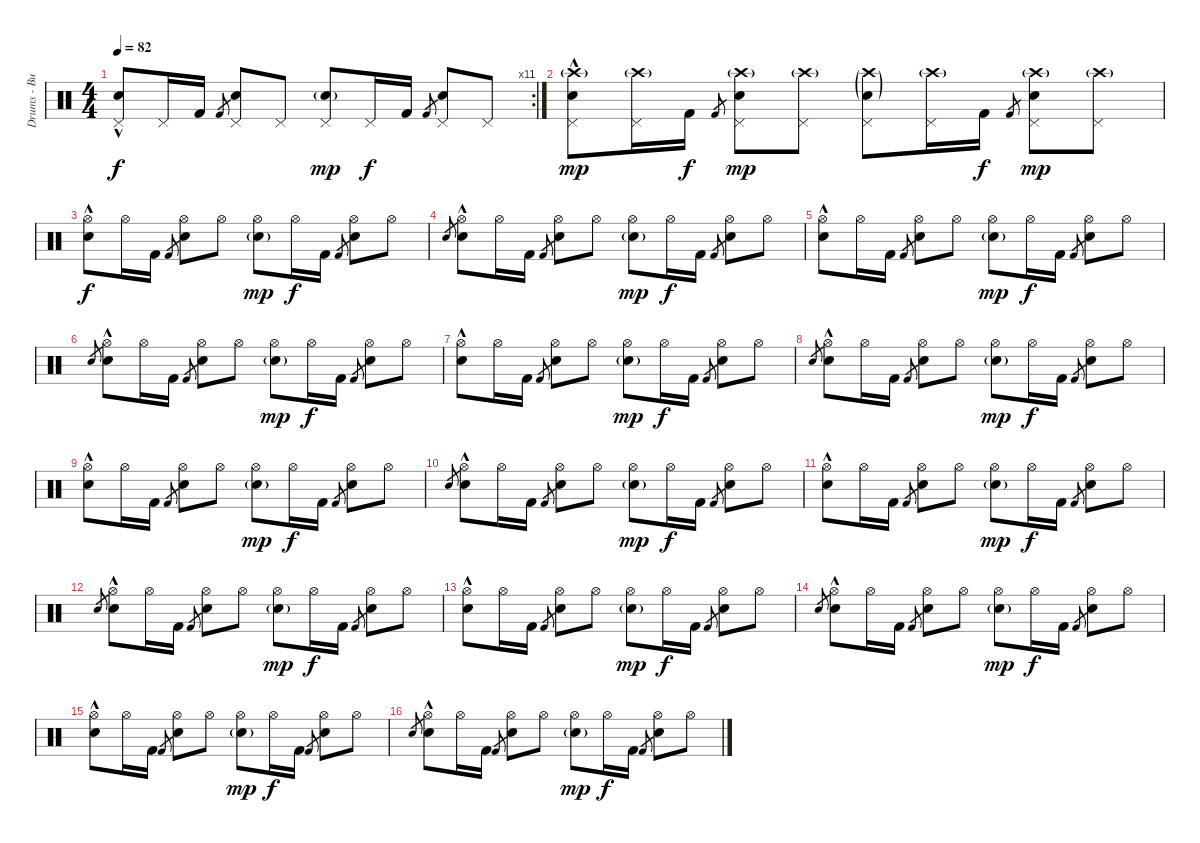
\track ("Drums - Buddy" "Drums - Bu") {instrument percussion}
\staff {score}
\articulation defaults
\rc 11
\ts (4 4)
\tempo 82
\clef neutral
\ks c
("Electric Snare (hit)" "Pedal Hi-Hat (hit)"{hac}).8{dy f} "Pedal Hi-Hat (hit)".16 "Kick (hit) 2".16 "Kick (hit) 2".8{gr} ("Electric Snare (hit)" "Pedal Hi-Hat (hit)").8 "Pedal Hi-Hat (hit)".8 ("Electric Snare (hit)"{g} "Pedal Hi-Hat (hit)").8{dy mp} "Pedal Hi-Hat (hit)".16{dy f} "Kick (hit) 2".16 "Kick (hit) 2".8{gr} ("Electric Snare (hit)" "Pedal Hi-Hat (hit)").8 "Pedal Hi-Hat (hit)".8 |
("Crash high (hit)"{g} "Electric Snare (hit)" "Pedal Hi-Hat (hit)"{hac}).8{dy mp volume 0} ("Crash high (hit)"{g} "Pedal Hi-Hat (hit)").16{volume 8} "Kick (hit) 2".16{dy f} "Kick (hit) 2".8{gr} ("Crash high (hit)"{g} "Electric Snare (hit)" "Pedal Hi-Hat (hit)").8{dy mp} ("Crash high (hit)"{g} "Pedal Hi-Hat (hit)").8 ("Crash high (hit)"{g} "Electric Snare (hit)"{g} "Pedal Hi-Hat (hit)").8 ("Crash high (hit)"{g} "Pedal Hi-Hat (hit)").16 "Kick (hit) 2".16{dy f} "Kick (hit) 2".8{gr} ("Crash high (hit)"{g} "Electric Snare (hit)" "Pedal Hi-Hat (hit)").8{dy mp} ("Crash high (hit)"{g} "Pedal Hi-Hat (hit)").8 |
("Electric Snare (hit)" "Hi-Hat (open)"{hac}).8{dy f} "Hi-Hat (open)".16 "Kick (hit) 2".16 "Kick (hit) 2".8{gr} ("Electric Snare (hit)" "Hi-Hat (open)").8 "Hi-Hat (open)".8 ("Electric Snare (hit)"{g} "Hi-Hat (open)").8{dy mp} "Hi-Hat (open)".16{dy f} "Kick (hit) 2".16 "Kick (hit) 2".8{gr} ("Electric Snare (hit)" "Hi-Hat (open)").8 "Hi-Hat (open)".8 |
"Electric Snare (hit)".8{gr} ("Electric Snare (hit)" "Hi-Hat (open)"{hac}).8 "Hi-Hat (open)".16 "Kick (hit) 2".16 "Kick (hit) 2".8{gr} ("Electric Snare (hit)" "Hi-Hat (open)").8 "Hi-Hat (open)".8 ("Electric Snare (hit)"{g} "Hi-Hat (open)").8{dy mp} "Hi-Hat (open)".16{dy f} "Kick (hit) 2".16 "Kick (hit) 2".8{gr} ("Electric Snare (hit)" "Hi-Hat (open)").8 "Hi-Hat (open)".8 |
("Electric Snare (hit)" "Hi-Hat (open)"{hac}).8 "Hi-Hat (open)".16 "Kick (hit) 2".16 "Kick (hit) 2".8{gr} ("Electric Snare (hit)" "Hi-Hat (open)").8 "Hi-Hat (open)".8 ("Electric Snare (hit)"{g} "Hi-Hat (open)").8{dy mp} "Hi-Hat (open)".16{dy f} "Kick (hit) 2".16 "Kick (hit) 2".8{gr} ("Electric Snare (hit)" "Hi-Hat (open)").8 "Hi-Hat (open)".8 |
"Electric Snare (hit)".8{gr} ("Electric Snare (hit)" "Hi-Hat (open)"{hac}).8 "Hi-Hat (open)".16 "Kick (hit) 2".16 "Kick (hit) 2".8{gr} ("Electric Snare (hit)" "Hi-Hat (open)").8 "Hi-Hat (open)".8 ("Electric Snare (hit)"{g} "Hi-Hat (open)").8{dy mp} "Hi-Hat (open)".16{dy f} "Kick (hit) 2".16 "Kick (hit) 2".8{gr} ("Electric Snare (hit)" "Hi-Hat (open)").8 "Hi-Hat (open)".8 |
("Electric Snare (hit)" "Hi-Hat (open)"{hac}).8 "Hi-Hat (open)".16 "Kick (hit) 2".16 "Kick (hit) 2".8{gr} ("Electric Snare (hit)" "Hi-Hat (open)").8 "Hi-Hat (open)".8 ("Electric Snare (hit)"{g} "Hi-Hat (open)").8{dy mp} "Hi-Hat (open)".16{dy f} "Kick (hit) 2".16 "Kick (hit) 2".8{gr} ("Electric Snare (hit)" "Hi-Hat (open)").8 "Hi-Hat (open)".8 |
"Electric Snare (hit)".8{gr} ("Electric Snare (hit)" "Hi-Hat (open)"{hac}).8{volume 14} "Hi-Hat (open)".16 "Kick (hit) 2".16 "Kick (hit) 2".8{gr} ("Electric Snare (hit)" "Hi-Hat (open)").8 "Hi-Hat (open)".8 ("Electric Snare (hit)"{g} "Hi-Hat (open)").8{dy mp} "Hi-Hat (open)".16{dy f} "Kick (hit) 2".16 "Kick (hit) 2".8{gr} ("Electric Snare (hit)" "Hi-Hat (open)").8 "Hi-Hat (open)".8 |
("Electric Snare (hit)" "Hi-Hat (open)"{hac}).8 "Hi-Hat (open)".16 "Kick (hit) 2".16 "Kick (hit) 2".8{gr} ("Electric Snare (hit)" "Hi-Hat (open)").8 "Hi-Hat (open)".8 ("Electric Snare (hit)"{g} "Hi-Hat (open)").8{dy mp} "Hi-Hat (open)".16{dy f} "Kick (hit) 2".16 "Kick (hit) 2".8{gr} ("Electric Snare (hit)" "Hi-Hat (open)").8 "Hi-Hat (open)".8 |
"Electric Snare (hit)".8{gr} ("Electric Snare (hit)" "Hi-Hat (open)"{hac}).8 "Hi-Hat (open)".16 "Kick (hit) 2".16 "Kick (hit) 2".8{gr} ("Electric Snare (hit)" "Hi-Hat (open)").8 "Hi-Hat (open)".8 ("Electric Snare (hit)"{g} "Hi-Hat (open)").8{dy mp} "Hi-Hat (open)".16{dy f} "Kick (hit) 2".16 "Kick (hit) 2".8{gr} ("Electric Snare (hit)" "Hi-Hat (open)").8 "Hi-Hat (open)".8 |
("Electric Snare (hit)" "Hi-Hat (open)"{hac}).8 "Hi-Hat (open)".16 "Kick (hit) 2".16 "Kick (hit) 2".8{gr} ("Electric Snare (hit)" "Hi-Hat (open)").8 "Hi-Hat (open)".8 ("Electric Snare (hit)"{g} "Hi-Hat (open)").8{dy mp} "Hi-Hat (open)".16{dy f} "Kick (hit) 2".16 "Kick (hit) 2".8{gr} ("Electric Snare (hit)" "Hi-Hat (open)").8 "Hi-Hat (open)".8 |
"Electric Snare (hit)".8{gr} ("Electric Snare (hit)" "Hi-Hat (open)"{hac}).8 "Hi-Hat (open)".16 "Kick (hit) 2".16 "Kick (hit) 2".8{gr} ("Electric Snare (hit)" "Hi-Hat (open)").8 "Hi-Hat (open)".8 ("Electric Snare (hit)"{g} "Hi-Hat (open)").8{dy mp} "Hi-Hat (open)".16{dy f} "Kick (hit) 2".16 "Kick (hit) 2".8{gr} ("Electric Snare (hit)" "Hi-Hat (open)").8 "Hi-Hat (open)".8 |
("Electric Snare (hit)" "Hi-Hat (open)"{hac}).8 "Hi-Hat (open)".16 "Kick (hit) 2".16 "Kick (hit) 2".8{gr} ("Electric Snare (hit)" "Hi-Hat (open)").8 "Hi-Hat (open)".8 ("Electric Snare (hit)"{g} "Hi-Hat (open)").8{dy mp} "Hi-Hat (open)".16{dy f} "Kick (hit) 2".16 "Kick (hit) 2".8{gr} ("Electric Snare (hit)" "Hi-Hat (open)").8 "Hi-Hat (open)".8 |
"Electric Snare (hit)".8{gr} ("Electric Snare (hit)" "Hi-Hat (open)"{hac}).8 "Hi-Hat (open)".16 "Kick (hit) 2".16 "Kick (hit) 2".8{gr} ("Electric Snare (hit)" "Hi-Hat (open)").8 "Hi-Hat (open)".8 ("Electric Snare (hit)"{g} "Hi-Hat (open)").8{dy mp} "Hi-Hat (open)".16{dy f} "Kick (hit) 2".16 "Kick (hit) 2".8{gr} ("Electric Snare (hit)" "Hi-Hat (open)").8 "Hi-Hat (open)".8 |
("Electric Snare (hit)" "Hi-Hat (open)"{hac}).8 "Hi-Hat (open)".16 "Kick (hit) 2".16 "Kick (hit) 2".8{gr} ("Electric Snare (hit)" "Hi-Hat (open)").8 "Hi-Hat (open)".8 ("Electric Snare (hit)"{g} "Hi-Hat (open)").8{dy mp} "Hi-Hat (open)".16{dy f} "Kick (hit) 2".16 "Kick (hit) 2".8{gr} ("Electric Snare (hit)" "Hi-Hat (open)").8 "Hi-Hat (open)".8 |
"Electric Snare (hit)".8{gr} ("Electric Snare (hit)" "Hi-Hat (open)"{hac}).8 "Hi-Hat (open)".16 "Kick (hit) 2".16 "Kick (hit) 2".8{gr} ("Electric Snare (hit)" "Hi-Hat (open)").8 "Hi-Hat (open)".8 ("Electric Snare (hit)"{g} "Hi-Hat (open)").8{dy mp} "Hi-Hat (open)".16{dy f} "Kick (hit) 2".16 "Kick (hit) 2".8{gr} ("Electric Snare (hit)" "Hi-Hat (open)").8 "Hi-Hat (open)".8
